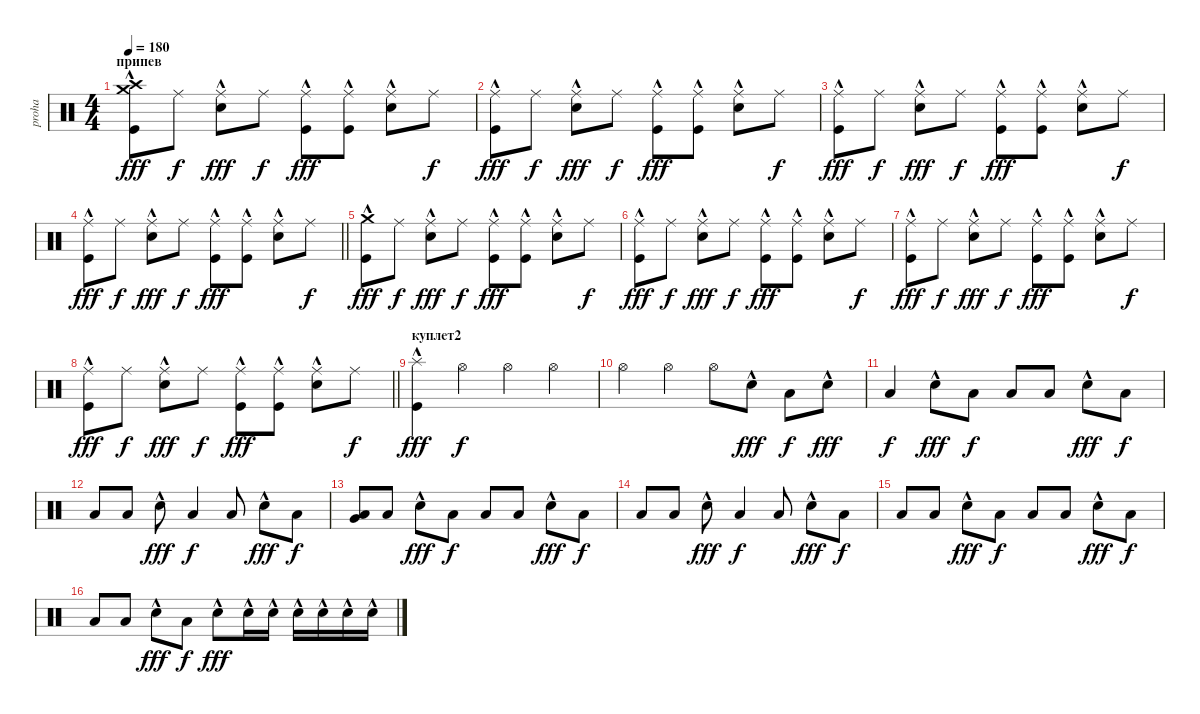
\track ("proha" "proha") {instrument percussion}
\staff {score}
\articulation defaults
\ts (4 4)
\section ("" "припев")
\tempo 180
\clef neutral
\ks c
("Crash high (hit)" "Kick (hit)"{hac} "Crash medium (hit)").8{dy fff} "Ride (middle)".8{dy f} ("Ride (middle)" "Snare (hit) 2"{hac}).8{dy fff} "Ride (middle)".8{dy f} ("Ride (middle)" "Kick (hit)"{hac}).8{dy fff} ("Ride (middle)" "Kick (hit)"{hac}).8 ("Ride (middle)" "Snare (hit) 2"{hac}).8 "Ride (middle)".8{dy f} |
("Ride (middle)" "Kick (hit)"{hac}).8{dy fff} "Ride (middle)".8{dy f} ("Ride (middle)" "Snare (hit) 2"{hac}).8{dy fff} "Ride (middle)".8{dy f} ("Ride (middle)" "Kick (hit)"{hac}).8{dy fff} ("Ride (middle)" "Kick (hit)"{hac}).8 ("Ride (middle)" "Snare (hit) 2"{hac}).8 "Ride (middle)".8{dy f} |
("Ride (middle)" "Kick (hit)"{hac}).8{dy fff} "Ride (middle)".8{dy f} ("Ride (middle)" "Snare (hit) 2"{hac}).8{dy fff} "Ride (middle)".8{dy f} ("Ride (middle)" "Kick (hit)"{hac}).8{dy fff} ("Ride (middle)" "Kick (hit)"{hac}).8 ("Ride (middle)" "Snare (hit) 2"{hac}).8 "Ride (middle)".8{dy f} |
\barLineRight lightlight
("Ride (middle)" "Kick (hit)"{hac}).8{dy fff} "Ride (middle)".8{dy f} ("Ride (middle)" "Snare (hit) 2"{hac}).8{dy fff} "Ride (middle)".8{dy f} ("Ride (middle)" "Kick (hit)"{hac}).8{dy fff} ("Ride (middle)" "Kick (hit)"{hac}).8 ("Ride (middle)" "Snare (hit) 2"{hac}).8 "Ride (middle)".8{dy f} |
("Crash medium (hit)" "Kick (hit)"{hac}).8{dy fff} "Ride (middle)".8{dy f} ("Ride (middle)" "Snare (hit) 2"{hac}).8{dy fff} "Ride (middle)".8{dy f} ("Ride (middle)" "Kick (hit)"{hac}).8{dy fff} ("Ride (middle)" "Kick (hit)"{hac}).8 ("Ride (middle)" "Snare (hit) 2"{hac}).8 "Ride (middle)".8{dy f} |
("Ride (middle)" "Kick (hit)"{hac}).8{dy fff} "Ride (middle)".8{dy f} ("Ride (middle)" "Snare (hit) 2"{hac}).8{dy fff} "Ride (middle)".8{dy f} ("Ride (middle)" "Kick (hit)"{hac}).8{dy fff} ("Ride (middle)" "Kick (hit)"{hac}).8 ("Ride (middle)" "Snare (hit) 2"{hac}).8 "Ride (middle)".8{dy f} |
("Ride (middle)" "Kick (hit)"{hac}).8{dy fff} "Ride (middle)".8{dy f} ("Ride (middle)" "Snare (hit) 2"{hac}).8{dy fff} "Ride (middle)".8{dy f} ("Ride (middle)" "Kick (hit)"{hac}).8{dy fff} ("Ride (middle)" "Kick (hit)"{hac}).8 ("Ride (middle)" "Snare (hit) 2"{hac}).8 "Ride (middle)".8{dy f} |
\barLineRight lightlight
("Ride (middle)" "Kick (hit)"{hac}).8{dy fff} "Ride (middle)".8{dy f} ("Ride (middle)" "Snare (hit) 2"{hac}).8{dy fff} "Ride (middle)".8{dy f} ("Ride (middle)" "Kick (hit)"{hac}).8{dy fff} ("Ride (middle)" "Kick (hit)"{hac}).8 ("Ride (middle)" "Snare (hit) 2"{hac}).8 "Ride (middle)".8{dy f} |
\section ("" "куплет2")
("Kick (hit)" "Splash (hit)"{hac}).4{dy fff} "Hi-Hat (open)".4{dy f} "Hi-Hat (open)".4 "Hi-Hat (open)".4 |
"Hi-Hat (open)".4 "Hi-Hat (open)".4 "Hi-Hat (open)".8 "Snare (hit) 2"{hac}.8{dy fff} "Low Floor Tom (hit)".8{dy f} "Snare (hit) 2"{hac}.8{dy fff} |
"Low Floor Tom (hit)".4{dy f} "Snare (hit) 2"{hac}.8{dy fff} "Low Floor Tom (hit)".8{dy f} "Low Floor Tom (hit)".8 "Low Floor Tom (hit)".8 "Snare (hit) 2"{hac}.8{dy fff} "Low Floor Tom (hit)".8{dy f} |
"Low Floor Tom (hit)".8 "Low Floor Tom (hit)".8 "Snare (hit) 2"{hac}.8{dy fff} "Low Floor Tom (hit)".4{dy f} "Low Floor Tom (hit)".8 "Snare (hit) 2"{hac}.8{dy fff} "Low Floor Tom (hit)".8{dy f} |
("Low Floor Tom (hit)" "Very Low Tom (hit)").8 "Low Floor Tom (hit)".8 "Snare (hit) 2"{hac}.8{dy fff} "Low Floor Tom (hit)".8{dy f} "Low Floor Tom (hit)".8 "Low Floor Tom (hit)".8 "Snare (hit) 2"{hac}.8{dy fff} "Low Floor Tom (hit)".8{dy f} |
"Low Floor Tom (hit)".8 "Low Floor Tom (hit)".8 "Snare (hit) 2"{hac}.8{dy fff} "Low Floor Tom (hit)".4{dy f} "Low Floor Tom (hit)".8 "Snare (hit) 2"{hac}.8{dy fff} "Low Floor Tom (hit)".8{dy f} |
"Low Floor Tom (hit)".8 "Low Floor Tom (hit)".8 "Snare (hit) 2"{hac}.8{dy fff} "Low Floor Tom (hit)".8{dy f} "Low Floor Tom (hit)".8 "Low Floor Tom (hit)".8 "Snare (hit) 2"{hac}.8{dy fff} "Low Floor Tom (hit)".8{dy f} |
"Low Floor Tom (hit)".8 "Low Floor Tom (hit)".8 "Snare (hit) 2"{hac}.8{dy fff} "Low Floor Tom (hit)".8{dy f} "Snare (hit) 2"{hac}.8{dy fff} "Snare (hit) 2"{hac}.16 "Snare (hit) 2"{hac}.16 "Snare (hit) 2"{hac}.16 "Snare (hit) 2"{hac}.16 "Snare (hit) 2"{hac}.16 "Snare (hit) 2"{hac}.16
